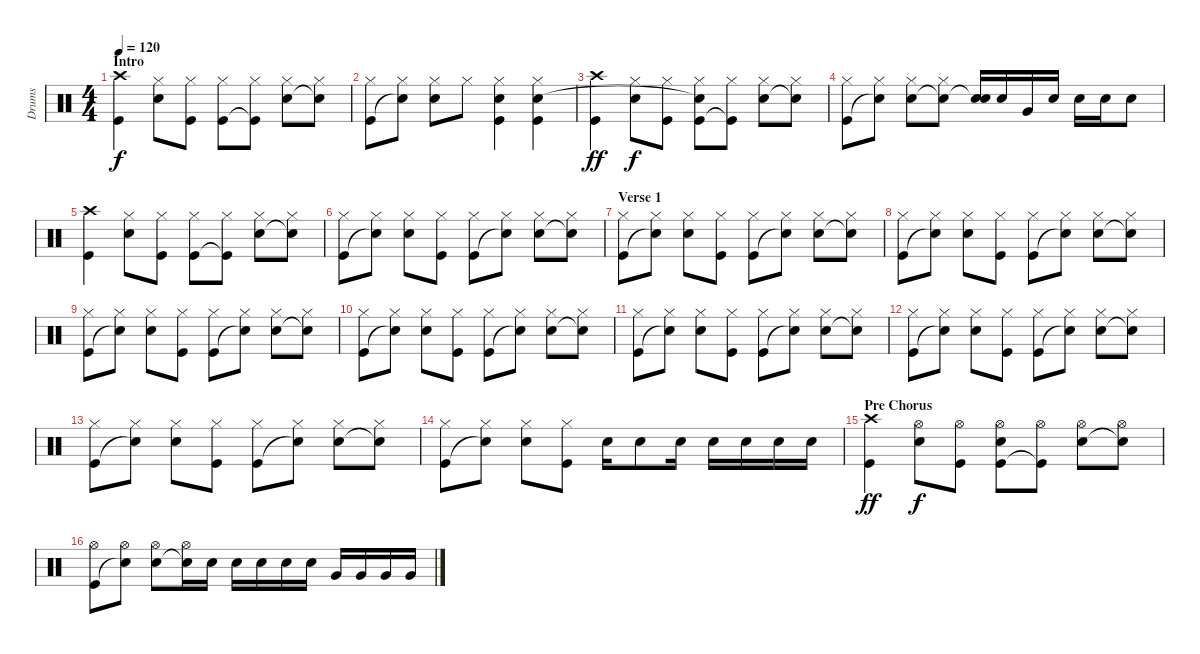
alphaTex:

\track ("Drums" "Drums") {instrument percussion}
\staff {score}
\articulation defaults
\ts (4 4)
\section ("" "Intro")
\tempo 120
\clef neutral
\ks c
("Kick (hit)" "Crash high (hit)").4{dy f} ("Snare (hit) 2" "Hi-Hat (closed)").8 ("Kick (hit)" "Hi-Hat (closed)").8 ("Kick (hit)" "Hi-Hat (closed)").8 ("Kick (hit)"{t} "Hi-Hat (closed)").8 ("Snare (hit) 2" "Hi-Hat (closed)").8 ("Snare (hit)"{t} "Hi-Hat (closed)").8 |
("Kick (hit)" "Hi-Hat (closed)").8 ("Snare (hit)"{t} "Hi-Hat (closed)").8 ("Snare (hit) 2" "Hi-Hat (closed)").8 "Hi-Hat (closed)".8 ("Kick (hit)" "Hi-Hat (closed)" "Snare (hit) 2").4 ("Kick (hit)" "Hi-Hat (closed)" "Snare (hit) 2").4 |
("Kick (hit)" "Crash high (hit)").4{dy ff} ("Snare (hit) 2" "Hi-Hat (closed)").8{dy f} ("Kick (hit)" "Hi-Hat (closed)").8 ("Kick (hit)" "Hi-Hat (closed)" "Snare (hit)"{t}).8 ("Kick (hit)"{t} "Hi-Hat (closed)").8 ("Snare (hit) 2" "Hi-Hat (closed)").8 ("Snare (hit)"{t} "Hi-Hat (closed)").8 |
("Kick (hit)" "Hi-Hat (closed)").8 ("Snare (hit)"{t} "Hi-Hat (closed)").8 ("Snare (hit) 2" "Hi-Hat (closed)").8 ("Snare (hit)"{t} "Hi-Hat (closed)").8 ("Snare (hit)"{t} "Snare (hit) 2").16 "Snare (hit) 2".16 "Very Low Tom (hit)".16 "Snare (hit) 2".16 "Snare (hit) 2".16 "Snare (hit) 2".16 "Snare (hit) 2".8 |
("Kick (hit)" "Crash high (hit)").4 ("Snare (hit) 2" "Hi-Hat (closed)").8 ("Kick (hit)" "Hi-Hat (closed)").8 ("Kick (hit)" "Hi-Hat (closed)").8 ("Kick (hit)"{t} "Hi-Hat (closed)").8 ("Snare (hit) 2" "Hi-Hat (closed)").8 ("Snare (hit)"{t} "Hi-Hat (closed)").8 |
("Kick (hit)" "Hi-Hat (closed)").8 ("Snare (hit)"{t} "Hi-Hat (closed)").8 ("Snare (hit) 2" "Hi-Hat (closed)").8 ("Kick (hit)" "Hi-Hat (closed)").8 ("Kick (hit)" "Hi-Hat (closed)").8 ("Snare (hit)"{t} "Hi-Hat (closed)").8 ("Snare (hit) 2" "Hi-Hat (closed)").8 ("Snare (hit)"{t} "Hi-Hat (closed)").8 |
\section ("" "Verse 1")
("Kick (hit)" "Hi-Hat (closed)").8 ("Snare (hit)"{t} "Hi-Hat (closed)").8 ("Snare (hit) 2" "Hi-Hat (closed)").8 ("Kick (hit)" "Hi-Hat (closed)").8 ("Kick (hit)" "Hi-Hat (closed)").8 ("Snare (hit)"{t} "Hi-Hat (closed)").8 ("Snare (hit) 2" "Hi-Hat (closed)").8 ("Snare (hit)"{t} "Hi-Hat (closed)").8 |
("Kick (hit)" "Hi-Hat (closed)").8 ("Snare (hit)"{t} "Hi-Hat (closed)").8 ("Snare (hit) 2" "Hi-Hat (closed)").8 ("Kick (hit)" "Hi-Hat (closed)").8 ("Kick (hit)" "Hi-Hat (closed)").8 ("Snare (hit)"{t} "Hi-Hat (closed)").8 ("Snare (hit) 2" "Hi-Hat (closed)").8 ("Snare (hit)"{t} "Hi-Hat (closed)").8 |
("Kick (hit)" "Hi-Hat (closed)").8 ("Snare (hit)"{t} "Hi-Hat (closed)").8 ("Snare (hit) 2" "Hi-Hat (closed)").8 ("Kick (hit)" "Hi-Hat (closed)").8 ("Kick (hit)" "Hi-Hat (closed)").8 ("Snare (hit)"{t} "Hi-Hat (closed)").8 ("Snare (hit) 2" "Hi-Hat (closed)").8 ("Snare (hit)"{t} "Hi-Hat (closed)").8 |
("Kick (hit)" "Hi-Hat (closed)").8 ("Snare (hit)"{t} "Hi-Hat (closed)").8 ("Snare (hit) 2" "Hi-Hat (closed)").8 ("Kick (hit)" "Hi-Hat (closed)").8 ("Kick (hit)" "Hi-Hat (closed)").8 ("Snare (hit)"{t} "Hi-Hat (closed)").8 ("Snare (hit) 2" "Hi-Hat (closed)").8 ("Snare (hit)"{t} "Hi-Hat (closed)").8 |
("Kick (hit)" "Hi-Hat (closed)").8 ("Snare (hit)"{t} "Hi-Hat (closed)").8 ("Snare (hit) 2" "Hi-Hat (closed)").8 ("Kick (hit)" "Hi-Hat (closed)").8 ("Kick (hit)" "Hi-Hat (closed)").8 ("Snare (hit)"{t} "Hi-Hat (closed)").8 ("Snare (hit) 2" "Hi-Hat (closed)").8 ("Snare (hit)"{t} "Hi-Hat (closed)").8 |
("Kick (hit)" "Hi-Hat (closed)").8 ("Snare (hit)"{t} "Hi-Hat (closed)").8 ("Snare (hit) 2" "Hi-Hat (closed)").8 ("Kick (hit)" "Hi-Hat (closed)").8 ("Kick (hit)" "Hi-Hat (closed)").8 ("Snare (hit)"{t} "Hi-Hat (closed)").8 ("Snare (hit) 2" "Hi-Hat (closed)").8 ("Snare (hit)"{t} "Hi-Hat (closed)").8 |
("Kick (hit)" "Hi-Hat (closed)").8 ("Snare (hit)"{t} "Hi-Hat (closed)").8 ("Snare (hit) 2" "Hi-Hat (closed)").8 ("Kick (hit)" "Hi-Hat (closed)").8 ("Kick (hit)" "Hi-Hat (closed)").8 ("Snare (hit)"{t} "Hi-Hat (closed)").8 ("Snare (hit) 2" "Hi-Hat (closed)").8 ("Snare (hit)"{t} "Hi-Hat (closed)").8 |
("Kick (hit)" "Hi-Hat (closed)").8 ("Snare (hit)"{t} "Hi-Hat (closed)").8 ("Snare (hit) 2" "Hi-Hat (closed)").8 ("Kick (hit)" "Hi-Hat (closed)").8 "Snare (hit) 2".16 "Snare (hit) 2".8 "Snare (hit) 2".16 "Snare (hit) 2".16 "Snare (hit) 2".16 "Snare (hit) 2".16 "Snare (hit) 2".16 |
\section ("" "Pre Chorus")
("Kick (hit)" "Crash high (hit)").4{dy ff} ("Snare (hit) 2" "Hi-Hat (open)").8{dy f} ("Kick (hit)" "Hi-Hat (open)").8 ("Kick (hit)" "Hi-Hat (open)" "Snare (hit)").8 ("Kick (hit)"{t} "Hi-Hat (open)").8 ("Snare (hit) 2" "Hi-Hat (open)").8 ("Snare (hit)"{t} "Hi-Hat (open)").8 |
("Kick (hit)" "Hi-Hat (open)").8 ("Snare (hit)"{t} "Hi-Hat (open)").8 ("Snare (hit) 2" "Hi-Hat (open)").8 ("Snare (hit)"{t} "Hi-Hat (open)").16 "Snare (hit) 2".16 "Snare (hit) 2".16 "Snare (hit) 2".16 "Snare (hit) 2".16 "Snare (hit) 2".16 "Very Low Tom (hit)".16 "Very Low Tom (hit)".16 "Very Low Tom (hit)".16 "Very Low Tom (hit)".16
